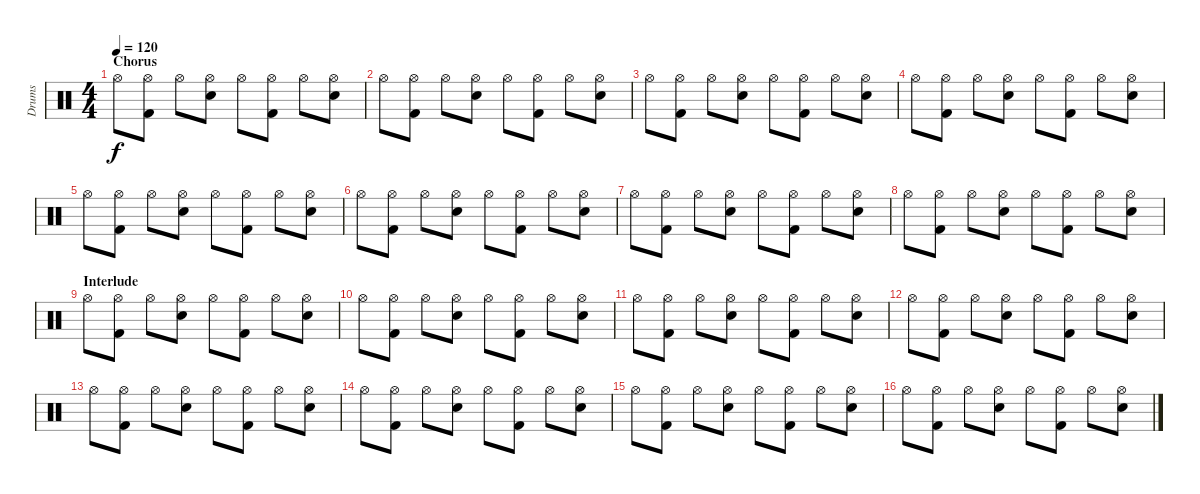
\track ("Drums" "Drums") {instrument percussion}
\staff {score}
\articulation defaults
\ts (4 4)
\section ("" "Chorus")
\tempo 120
\clef neutral
\ks c "Hi-Hat (open)".8{dy f}
("Hi-Hat (open)" "Kick (hit) 2").8 "Hi-Hat (open)".8 ("Hi-Hat (open)" "Snare (hit) 2").8 "Hi-Hat (open)".8 ("Hi-Hat (open)" "Kick (hit) 2").8 "Hi-Hat (open)".8 ("Hi-Hat (open)" "Snare (hit) 2").8 |
"Hi-Hat (open)".8 ("Hi-Hat (open)" "Kick (hit) 2").8 "Hi-Hat (open)".8 ("Hi-Hat (open)" "Snare (hit) 2").8 "Hi-Hat (open)".8 ("Hi-Hat (open)" "Kick (hit) 2").8 "Hi-Hat (open)".8 ("Hi-Hat (open)" "Snare (hit) 2").8 |
"Hi-Hat (open)".8 ("Hi-Hat (open)" "Kick (hit) 2").8 "Hi-Hat (open)".8 ("Hi-Hat (open)" "Snare (hit) 2").8 "Hi-Hat (open)".8 ("Hi-Hat (open)" "Kick (hit) 2").8 "Hi-Hat (open)".8 ("Hi-Hat (open)" "Snare (hit) 2").8 |
"Hi-Hat (open)".8 ("Hi-Hat (open)" "Kick (hit) 2").8 "Hi-Hat (open)".8 ("Hi-Hat (open)" "Snare (hit) 2").8 "Hi-Hat (open)".8 ("Hi-Hat (open)" "Kick (hit) 2").8 "Hi-Hat (open)".8 ("Hi-Hat (open)" "Snare (hit) 2").8 |
"Hi-Hat (open)".8 ("Hi-Hat (open)" "Kick (hit) 2").8 "Hi-Hat (open)".8 ("Hi-Hat (open)" "Snare (hit) 2").8 "Hi-Hat (open)".8 ("Hi-Hat (open)" "Kick (hit) 2").8 "Hi-Hat (open)".8 ("Hi-Hat (open)" "Snare (hit) 2").8 |
"Hi-Hat (open)".8 ("Hi-Hat (open)" "Kick (hit) 2").8 "Hi-Hat (open)".8 ("Hi-Hat (open)" "Snare (hit) 2").8 "Hi-Hat (open)".8 ("Hi-Hat (open)" "Kick (hit) 2").8 "Hi-Hat (open)".8 ("Hi-Hat (open)" "Snare (hit) 2").8 |
"Hi-Hat (open)".8 ("Hi-Hat (open)" "Kick (hit) 2").8 "Hi-Hat (open)".8 ("Hi-Hat (open)" "Snare (hit) 2").8 "Hi-Hat (open)".8 ("Hi-Hat (open)" "Kick (hit) 2").8 "Hi-Hat (open)".8 ("Hi-Hat (open)" "Snare (hit) 2").8 |
"Hi-Hat (open)".8 ("Hi-Hat (open)" "Kick (hit) 2").8 "Hi-Hat (open)".8 ("Hi-Hat (open)" "Snare (hit) 2").8 "Hi-Hat (open)".8 ("Hi-Hat (open)" "Kick (hit) 2").8 "Hi-Hat (open)".8 ("Hi-Hat (open)" "Snare (hit) 2").8 |
\section ("" "Interlude")
"Hi-Hat (open)".8 ("Hi-Hat (open)" "Kick (hit) 2").8 "Hi-Hat (open)".8 ("Hi-Hat (open)" "Snare (hit) 2").8 "Hi-Hat (open)".8 ("Hi-Hat (open)" "Kick (hit) 2").8 "Hi-Hat (open)".8 ("Hi-Hat (open)" "Snare (hit) 2").8 |
"Hi-Hat (open)".8 ("Hi-Hat (open)" "Kick (hit) 2").8 "Hi-Hat (open)".8 ("Hi-Hat (open)" "Snare (hit) 2").8 "Hi-Hat (open)".8 ("Hi-Hat (open)" "Kick (hit) 2").8 "Hi-Hat (open)".8 ("Hi-Hat (open)" "Snare (hit) 2").8 |
"Hi-Hat (open)".8 ("Hi-Hat (open)" "Kick (hit) 2").8 "Hi-Hat (open)".8 ("Hi-Hat (open)" "Snare (hit) 2").8 "Hi-Hat (open)".8 ("Hi-Hat (open)" "Kick (hit) 2").8 "Hi-Hat (open)".8 ("Hi-Hat (open)" "Snare (hit) 2").8 |
"Hi-Hat (open)".8 ("Hi-Hat (open)" "Kick (hit) 2").8 "Hi-Hat (open)".8 ("Hi-Hat (open)" "Snare (hit) 2").8 "Hi-Hat (open)".8 ("Hi-Hat (open)" "Kick (hit) 2").8 "Hi-Hat (open)".8 ("Hi-Hat (open)" "Snare (hit) 2").8 |
"Hi-Hat (open)".8 ("Hi-Hat (open)" "Kick (hit) 2").8 "Hi-Hat (open)".8 ("Hi-Hat (open)" "Snare (hit) 2").8 "Hi-Hat (open)".8 ("Hi-Hat (open)" "Kick (hit) 2").8 "Hi-Hat (open)".8 ("Hi-Hat (open)" "Snare (hit) 2").8 |
"Hi-Hat (open)".8 ("Hi-Hat (open)" "Kick (hit) 2").8 "Hi-Hat (open)".8 ("Hi-Hat (open)" "Snare (hit) 2").8 "Hi-Hat (open)".8 ("Hi-Hat (open)" "Kick (hit) 2").8 "Hi-Hat (open)".8 ("Hi-Hat (open)" "Snare (hit) 2").8 |
"Hi-Hat (open)".8 ("Hi-Hat (open)" "Kick (hit) 2").8 "Hi-Hat (open)".8 ("Hi-Hat (open)" "Snare (hit) 2").8 "Hi-Hat (open)".8 ("Hi-Hat (open)" "Kick (hit) 2").8 "Hi-Hat (open)".8 ("Hi-Hat (open)" "Snare (hit) 2").8 |
"Hi-Hat (open)".8 ("Hi-Hat (open)" "Kick (hit) 2").8 "Hi-Hat (open)".8 ("Hi-Hat (open)" "Snare (hit) 2").8 "Hi-Hat (open)".8 ("Hi-Hat (open)" "Kick (hit) 2").8 "Hi-Hat (open)".8 ("Hi-Hat (open)" "Snare (hit) 2").8
